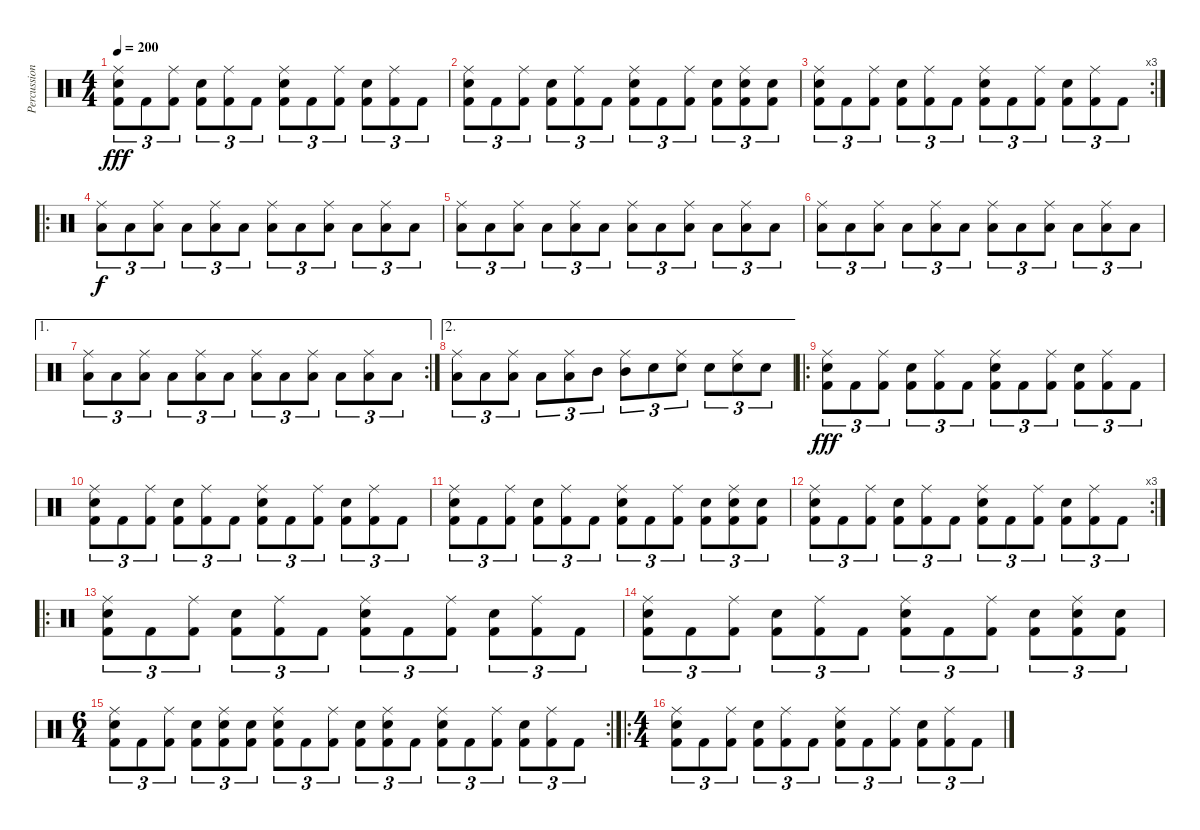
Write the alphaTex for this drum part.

\track ("Percussion" "Percussion") {instrument percussion}
\staff {score}
\articulation defaults
\ts (4 4)
\tempo 200
\clef neutral
\ks c
("Ride (middle)" "Electric Snare (hit)" "Kick (hit) 2").8{tu (3 2) dy fff} "Kick (hit) 2".8{tu (3 2)} ("Ride (middle)" "Kick (hit) 2").8{tu (3 2)} ("Electric Snare (hit)" "Kick (hit) 2").8{tu (3 2)} ("Ride (middle)" "Kick (hit) 2").8{tu (3 2)} "Kick (hit) 2".8{tu (3 2)} ("Ride (middle)" "Electric Snare (hit)" "Kick (hit) 2").8{tu (3 2)} "Kick (hit) 2".8{tu (3 2)} ("Ride (middle)" "Kick (hit) 2").8{tu (3 2)} ("Electric Snare (hit)" "Kick (hit) 2").8{tu (3 2)} ("Ride (middle)" "Kick (hit) 2").8{tu (3 2)} "Kick (hit) 2".8{tu (3 2)} |
("Ride (middle)" "Electric Snare (hit)" "Kick (hit) 2").8{tu (3 2)} "Kick (hit) 2".8{tu (3 2)} ("Ride (middle)" "Kick (hit) 2").8{tu (3 2)} ("Electric Snare (hit)" "Kick (hit) 2").8{tu (3 2)} ("Ride (middle)" "Kick (hit) 2").8{tu (3 2)} "Kick (hit) 2".8{tu (3 2)} ("Ride (middle)" "Electric Snare (hit)" "Kick (hit) 2").8{tu (3 2)} "Kick (hit) 2".8{tu (3 2)} ("Ride (middle)" "Kick (hit) 2").8{tu (3 2)} ("Electric Snare (hit)" "Kick (hit) 2").8{tu (3 2)} ("Ride (middle)" "Electric Snare (hit)" "Kick (hit) 2").8{tu (3 2)} ("Electric Snare (hit)" "Kick (hit) 2").8{tu (3 2)} |
\rc 3
("Ride (middle)" "Electric Snare (hit)" "Kick (hit) 2").8{tu (3 2)} "Kick (hit) 2".8{tu (3 2)} ("Ride (middle)" "Kick (hit) 2").8{tu (3 2)} ("Electric Snare (hit)" "Kick (hit) 2").8{tu (3 2)} ("Ride (middle)" "Kick (hit) 2").8{tu (3 2)} "Kick (hit) 2".8{tu (3 2)} ("Ride (middle)" "Electric Snare (hit)" "Kick (hit) 2").8{tu (3 2)} "Kick (hit) 2".8{tu (3 2)} ("Ride (middle)" "Kick (hit) 2").8{tu (3 2)} ("Electric Snare (hit)" "Kick (hit) 2").8{tu (3 2)} ("Ride (middle)" "Kick (hit) 2").8{tu (3 2)} "Kick (hit) 2".8{tu (3 2)} |
\ro
("Ride (middle)" "Low Tom (hit)").8{tu (3 2) dy f} "Low Tom (hit)".8{tu (3 2)} ("Ride (middle)" "Low Tom (hit)").8{tu (3 2)} "Low Tom (hit)".8{tu (3 2)} ("Ride (middle)" "Low Tom (hit)").8{tu (3 2)} "Low Tom (hit)".8{tu (3 2)} ("Ride (middle)" "Low Tom (hit)").8{tu (3 2)} "Low Tom (hit)".8{tu (3 2)} ("Ride (middle)" "Low Tom (hit)").8{tu (3 2)} "Low Tom (hit)".8{tu (3 2)} ("Ride (middle)" "Low Tom (hit)").8{tu (3 2)} "Low Tom (hit)".8{tu (3 2)} |
("Ride (middle)" "Low Tom (hit)").8{tu (3 2)} "Low Tom (hit)".8{tu (3 2)} ("Ride (middle)" "Low Tom (hit)").8{tu (3 2)} "Low Tom (hit)".8{tu (3 2)} ("Ride (middle)" "Low Tom (hit)").8{tu (3 2)} "Low Tom (hit)".8{tu (3 2)} ("Ride (middle)" "Low Tom (hit)").8{tu (3 2)} "Low Tom (hit)".8{tu (3 2)} ("Ride (middle)" "Low Tom (hit)").8{tu (3 2)} "Low Tom (hit)".8{tu (3 2)} ("Ride (middle)" "Low Tom (hit)").8{tu (3 2)} "Low Tom (hit)".8{tu (3 2)} |
("Ride (middle)" "Low Tom (hit)").8{tu (3 2)} "Low Tom (hit)".8{tu (3 2)} ("Ride (middle)" "Low Tom (hit)").8{tu (3 2)} "Low Tom (hit)".8{tu (3 2)} ("Ride (middle)" "Low Tom (hit)").8{tu (3 2)} "Low Tom (hit)".8{tu (3 2)} ("Ride (middle)" "Low Tom (hit)").8{tu (3 2)} "Low Tom (hit)".8{tu (3 2)} ("Ride (middle)" "Low Tom (hit)").8{tu (3 2)} "Low Tom (hit)".8{tu (3 2)} ("Ride (middle)" "Low Tom (hit)").8{tu (3 2)} "Low Tom (hit)".8{tu (3 2)} |
\ae 1
\rc 2
("Ride (middle)" "Low Tom (hit)").8{tu (3 2)} "Low Tom (hit)".8{tu (3 2)} ("Ride (middle)" "Low Tom (hit)").8{tu (3 2)} "Low Tom (hit)".8{tu (3 2)} ("Ride (middle)" "Low Tom (hit)").8{tu (3 2)} "Low Tom (hit)".8{tu (3 2)} ("Ride (middle)" "Low Tom (hit)").8{tu (3 2)} "Low Tom (hit)".8{tu (3 2)} ("Ride (middle)" "Low Tom (hit)").8{tu (3 2)} "Low Tom (hit)".8{tu (3 2)} ("Ride (middle)" "Low Tom (hit)").8{tu (3 2)} "Low Tom (hit)".8{tu (3 2)} |
\ae 2
("Ride (middle)" "Low Tom (hit)").8{tu (3 2)} "Low Tom (hit)".8{tu (3 2)} ("Ride (middle)" "Low Tom (hit)").8{tu (3 2)} "Low Tom (hit)".8{tu (3 2)} ("Ride (middle)" "Low Tom (hit)").8{tu (3 2)} "Mid Tom (hit)".8{tu (3 2)} ("Ride (middle)" "Mid Tom (hit)").8{tu (3 2)} "Electric Snare (hit)".8{tu (3 2)} ("Ride (middle)" "Electric Snare (hit)").8{tu (3 2)} "Electric Snare (hit)".8{tu (3 2)} ("Ride (middle)" "Electric Snare (hit)").8{tu (3 2)} "Electric Snare (hit)".8{tu (3 2)} |
\ro
("Ride (middle)" "Electric Snare (hit)" "Kick (hit) 2").8{tu (3 2) dy fff} "Kick (hit) 2".8{tu (3 2)} ("Ride (middle)" "Kick (hit) 2").8{tu (3 2)} ("Electric Snare (hit)" "Kick (hit) 2").8{tu (3 2)} ("Ride (middle)" "Kick (hit) 2").8{tu (3 2)} "Kick (hit) 2".8{tu (3 2)} ("Ride (middle)" "Electric Snare (hit)" "Kick (hit) 2").8{tu (3 2)} "Kick (hit) 2".8{tu (3 2)} ("Ride (middle)" "Kick (hit) 2").8{tu (3 2)} ("Electric Snare (hit)" "Kick (hit) 2").8{tu (3 2)} ("Ride (middle)" "Kick (hit) 2").8{tu (3 2)} "Kick (hit) 2".8{tu (3 2)} |
("Ride (middle)" "Electric Snare (hit)" "Kick (hit) 2").8{tu (3 2)} "Kick (hit) 2".8{tu (3 2)} ("Ride (middle)" "Kick (hit) 2").8{tu (3 2)} ("Electric Snare (hit)" "Kick (hit) 2").8{tu (3 2)} ("Ride (middle)" "Kick (hit) 2").8{tu (3 2)} "Kick (hit) 2".8{tu (3 2)} ("Ride (middle)" "Electric Snare (hit)" "Kick (hit) 2").8{tu (3 2)} "Kick (hit) 2".8{tu (3 2)} ("Ride (middle)" "Kick (hit) 2").8{tu (3 2)} ("Electric Snare (hit)" "Kick (hit) 2").8{tu (3 2)} ("Ride (middle)" "Kick (hit) 2").8{tu (3 2)} "Kick (hit) 2".8{tu (3 2)} |
("Ride (middle)" "Electric Snare (hit)" "Kick (hit) 2").8{tu (3 2)} "Kick (hit) 2".8{tu (3 2)} ("Ride (middle)" "Kick (hit) 2").8{tu (3 2)} ("Electric Snare (hit)" "Kick (hit) 2").8{tu (3 2)} ("Ride (middle)" "Kick (hit) 2").8{tu (3 2)} "Kick (hit) 2".8{tu (3 2)} ("Ride (middle)" "Electric Snare (hit)" "Kick (hit) 2").8{tu (3 2)} "Kick (hit) 2".8{tu (3 2)} ("Ride (middle)" "Kick (hit) 2").8{tu (3 2)} ("Electric Snare (hit)" "Kick (hit) 2").8{tu (3 2)} ("Ride (middle)" "Electric Snare (hit)" "Kick (hit) 2").8{tu (3 2)} ("Electric Snare (hit)" "Kick (hit) 2").8{tu (3 2)} |
\rc 3
("Ride (middle)" "Electric Snare (hit)" "Kick (hit) 2").8{tu (3 2)} "Kick (hit) 2".8{tu (3 2)} ("Ride (middle)" "Kick (hit) 2").8{tu (3 2)} ("Electric Snare (hit)" "Kick (hit) 2").8{tu (3 2)} ("Ride (middle)" "Kick (hit) 2").8{tu (3 2)} "Kick (hit) 2".8{tu (3 2)} ("Ride (middle)" "Electric Snare (hit)" "Kick (hit) 2").8{tu (3 2)} "Kick (hit) 2".8{tu (3 2)} ("Ride (middle)" "Kick (hit) 2").8{tu (3 2)} ("Electric Snare (hit)" "Kick (hit) 2").8{tu (3 2)} ("Ride (middle)" "Kick (hit) 2").8{tu (3 2)} "Kick (hit) 2".8{tu (3 2)} |
\ro
("Ride (middle)" "Electric Snare (hit)" "Kick (hit) 2").8{tu (3 2)} "Kick (hit) 2".8{tu (3 2)} ("Ride (middle)" "Kick (hit) 2").8{tu (3 2)} ("Electric Snare (hit)" "Kick (hit) 2").8{tu (3 2)} ("Ride (middle)" "Kick (hit) 2").8{tu (3 2)} "Kick (hit) 2".8{tu (3 2)} ("Ride (middle)" "Electric Snare (hit)" "Kick (hit) 2").8{tu (3 2)} "Kick (hit) 2".8{tu (3 2)} ("Ride (middle)" "Kick (hit) 2").8{tu (3 2)} ("Electric Snare (hit)" "Kick (hit) 2").8{tu (3 2)} ("Ride (middle)" "Kick (hit) 2").8{tu (3 2)} "Kick (hit) 2".8{tu (3 2)} |
("Ride (middle)" "Electric Snare (hit)" "Kick (hit) 2").8{tu (3 2)} "Kick (hit) 2".8{tu (3 2)} ("Ride (middle)" "Kick (hit) 2").8{tu (3 2)} ("Electric Snare (hit)" "Kick (hit) 2").8{tu (3 2)} ("Ride (middle)" "Kick (hit) 2").8{tu (3 2)} "Kick (hit) 2".8{tu (3 2)} ("Ride (middle)" "Electric Snare (hit)" "Kick (hit) 2").8{tu (3 2)} "Kick (hit) 2".8{tu (3 2)} ("Ride (middle)" "Kick (hit) 2").8{tu (3 2)} ("Electric Snare (hit)" "Kick (hit) 2").8{tu (3 2)} ("Ride (middle)" "Electric Snare (hit)" "Kick (hit) 2").8{tu (3 2)} ("Electric Snare (hit)" "Kick (hit) 2").8{tu (3 2)} |
\rc 2
\ts (6 4)
("Ride (middle)" "Electric Snare (hit)" "Kick (hit) 2").8{tu (3 2)} "Kick (hit) 2".8{tu (3 2)} ("Ride (middle)" "Kick (hit) 2").8{tu (3 2)} ("Electric Snare (hit)" "Kick (hit) 2").8{tu (3 2)} ("Ride (middle)" "Electric Snare (hit)" "Kick (hit) 2").8{tu (3 2)} ("Electric Snare (hit)" "Kick (hit) 2").8{tu (3 2)} ("Ride (middle)" "Electric Snare (hit)" "Kick (hit) 2").8{tu (3 2)} "Kick (hit) 2".8{tu (3 2)} ("Ride (middle)" "Kick (hit) 2").8{tu (3 2)} ("Electric Snare (hit)" "Kick (hit) 2").8{tu (3 2)} ("Ride (middle)" "Electric Snare (hit)" "Kick (hit) 2").8{tu (3 2)} "Kick (hit) 2".8{tu (3 2)} ("Ride (middle)" "Electric Snare (hit)" "Kick (hit) 2").8{tu (3 2)} "Kick (hit) 2".8{tu (3 2)} ("Ride (middle)" "Kick (hit) 2").8{tu (3 2)} ("Electric Snare (hit)" "Kick (hit) 2").8{tu (3 2)} ("Ride (middle)" "Kick (hit) 2").8{tu (3 2)} "Kick (hit) 2".8{tu (3 2)} |
\ro
\ts (4 4)
("Ride (middle)" "Electric Snare (hit)" "Kick (hit) 2").8{tu (3 2)} "Kick (hit) 2".8{tu (3 2)} ("Ride (middle)" "Kick (hit) 2").8{tu (3 2)} ("Electric Snare (hit)" "Kick (hit) 2").8{tu (3 2)} ("Ride (middle)" "Kick (hit) 2").8{tu (3 2)} "Kick (hit) 2".8{tu (3 2)} ("Ride (middle)" "Electric Snare (hit)" "Kick (hit) 2").8{tu (3 2)} "Kick (hit) 2".8{tu (3 2)} ("Ride (middle)" "Kick (hit) 2").8{tu (3 2)} ("Electric Snare (hit)" "Kick (hit) 2").8{tu (3 2)} ("Ride (middle)" "Kick (hit) 2").8{tu (3 2)} "Kick (hit) 2".8{tu (3 2)}
